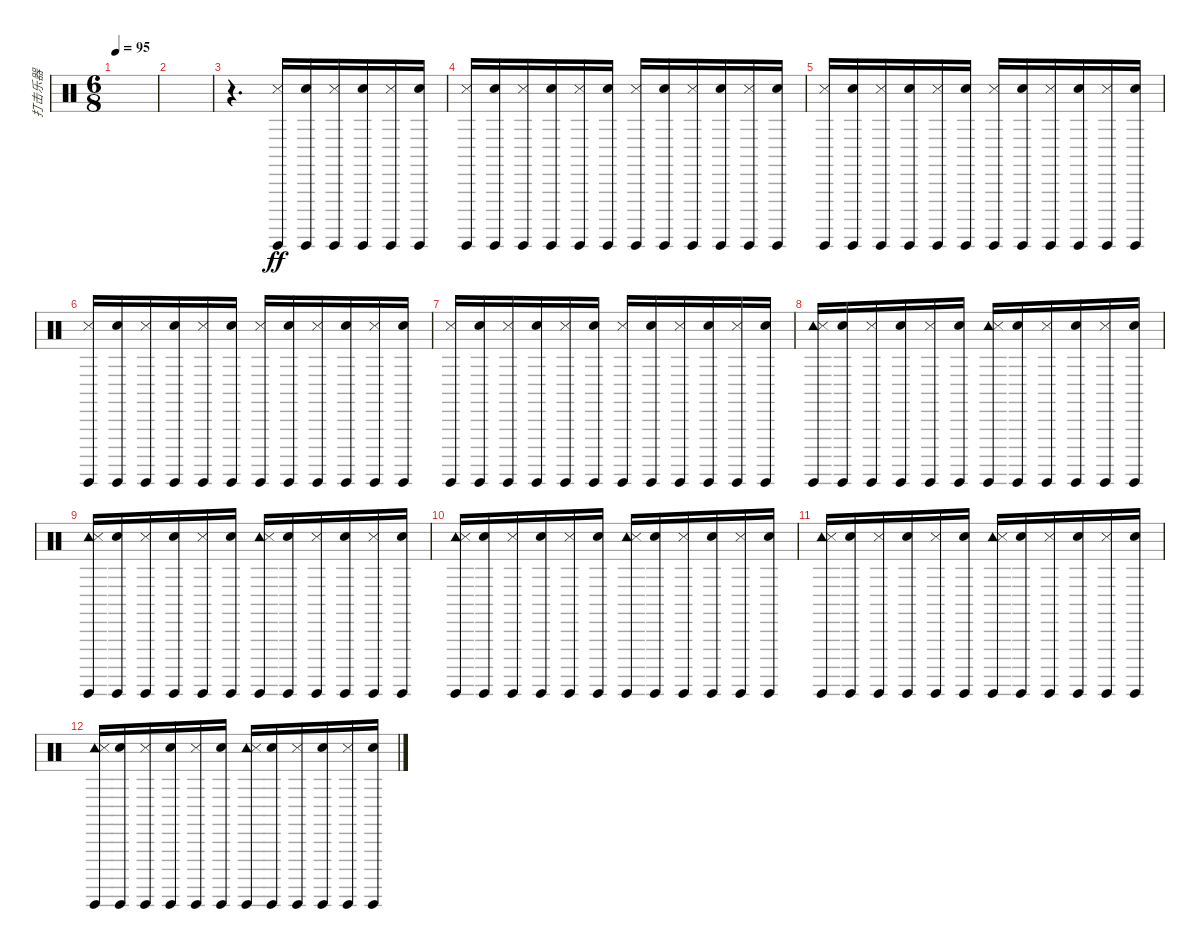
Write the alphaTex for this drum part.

\track ("打击乐器" "打击乐器") {instrument percussion}
\staff {score}
\articulation defaults
\ts (6 8)
\tempo 95
\clef neutral
\ks c
|
|
r.4{d} ("Snare (side stick) 3" "Guiro (hit)").16{dy ff} ("Hand Clap (hit)" "Guiro (hit)").16 ("Snare (side stick) 3" "Guiro (hit)").16 ("Hand Clap (hit)" "Guiro (hit)").16 ("Snare (side stick) 3" "Guiro (hit)").16 ("Hand Clap (hit)" "Guiro (hit)").16 |
("Snare (side stick) 3" "Guiro (hit)").16 ("Hand Clap (hit)" "Guiro (hit)").16 ("Snare (side stick) 3" "Guiro (hit)").16 ("Hand Clap (hit)" "Guiro (hit)").16 ("Snare (side stick) 3" "Guiro (hit)").16 ("Hand Clap (hit)" "Guiro (hit)").16 ("Snare (side stick) 3" "Guiro (hit)").16 ("Hand Clap (hit)" "Guiro (hit)").16 ("Snare (side stick) 3" "Guiro (hit)").16 ("Hand Clap (hit)" "Guiro (hit)").16 ("Snare (side stick) 3" "Guiro (hit)").16 ("Hand Clap (hit)" "Guiro (hit)").16 |
("Snare (side stick) 3" "Guiro (hit)").16 ("Hand Clap (hit)" "Guiro (hit)").16 ("Snare (side stick) 3" "Guiro (hit)").16 ("Hand Clap (hit)" "Guiro (hit)").16 ("Snare (side stick) 3" "Guiro (hit)").16 ("Hand Clap (hit)" "Guiro (hit)").16 ("Snare (side stick) 3" "Guiro (hit)").16 ("Hand Clap (hit)" "Guiro (hit)").16 ("Snare (side stick) 3" "Guiro (hit)").16 ("Hand Clap (hit)" "Guiro (hit)").16 ("Snare (side stick) 3" "Guiro (hit)").16 ("Hand Clap (hit)" "Guiro (hit)").16 |
("Snare (side stick) 3" "Guiro (hit)").16 ("Hand Clap (hit)" "Guiro (hit)").16 ("Snare (side stick) 3" "Guiro (hit)").16 ("Hand Clap (hit)" "Guiro (hit)").16 ("Snare (side stick) 3" "Guiro (hit)").16 ("Hand Clap (hit)" "Guiro (hit)").16 ("Snare (side stick) 3" "Guiro (hit)").16 ("Hand Clap (hit)" "Guiro (hit)").16 ("Snare (side stick) 3" "Guiro (hit)").16 ("Hand Clap (hit)" "Guiro (hit)").16 ("Snare (side stick) 3" "Guiro (hit)").16 ("Hand Clap (hit)" "Guiro (hit)").16 |
("Snare (side stick) 3" "Guiro (hit)").16 ("Hand Clap (hit)" "Guiro (hit)").16 ("Snare (side stick) 3" "Guiro (hit)").16 ("Hand Clap (hit)" "Guiro (hit)").16 ("Snare (side stick) 3" "Guiro (hit)").16 ("Hand Clap (hit)" "Guiro (hit)").16 ("Snare (side stick) 3" "Guiro (hit)").16 ("Hand Clap (hit)" "Guiro (hit)").16 ("Snare (side stick) 3" "Guiro (hit)").16 ("Hand Clap (hit)" "Guiro (hit)").16 ("Snare (side stick) 3" "Guiro (hit)").16 ("Hand Clap (hit)" "Guiro (hit)").16 |
("Tambourine (hit)" "Snare (side stick) 3" "Guiro (hit)").16 ("Hand Clap (hit)" "Guiro (hit)").16 ("Snare (side stick) 3" "Guiro (hit)").16 ("Hand Clap (hit)" "Guiro (hit)").16 ("Snare (side stick) 3" "Guiro (hit)").16 ("Hand Clap (hit)" "Guiro (hit)").16 ("Tambourine (hit)" "Snare (side stick) 3" "Guiro (hit)").16 ("Hand Clap (hit)" "Guiro (hit)").16 ("Snare (side stick) 3" "Guiro (hit)").16 ("Hand Clap (hit)" "Guiro (hit)").16 ("Snare (side stick) 3" "Guiro (hit)").16 ("Hand Clap (hit)" "Guiro (hit)").16 |
("Tambourine (hit)" "Snare (side stick) 3" "Guiro (hit)").16 ("Hand Clap (hit)" "Guiro (hit)").16 ("Snare (side stick) 3" "Guiro (hit)").16 ("Hand Clap (hit)" "Guiro (hit)").16 ("Snare (side stick) 3" "Guiro (hit)").16 ("Hand Clap (hit)" "Guiro (hit)").16 ("Tambourine (hit)" "Snare (side stick) 3" "Guiro (hit)").16 ("Hand Clap (hit)" "Guiro (hit)").16 ("Snare (side stick) 3" "Guiro (hit)").16 ("Hand Clap (hit)" "Guiro (hit)").16 ("Snare (side stick) 3" "Guiro (hit)").16 ("Hand Clap (hit)" "Guiro (hit)").16 |
("Tambourine (hit)" "Snare (side stick) 3" "Guiro (hit)").16 ("Hand Clap (hit)" "Guiro (hit)").16 ("Snare (side stick) 3" "Guiro (hit)").16 ("Hand Clap (hit)" "Guiro (hit)").16 ("Snare (side stick) 3" "Guiro (hit)").16 ("Hand Clap (hit)" "Guiro (hit)").16 ("Tambourine (hit)" "Snare (side stick) 3" "Guiro (hit)").16 ("Hand Clap (hit)" "Guiro (hit)").16 ("Snare (side stick) 3" "Guiro (hit)").16 ("Hand Clap (hit)" "Guiro (hit)").16 ("Snare (side stick) 3" "Guiro (hit)").16 ("Hand Clap (hit)" "Guiro (hit)").16 |
("Tambourine (hit)" "Snare (side stick) 3" "Guiro (hit)").16 ("Hand Clap (hit)" "Guiro (hit)").16 ("Snare (side stick) 3" "Guiro (hit)").16 ("Hand Clap (hit)" "Guiro (hit)").16 ("Snare (side stick) 3" "Guiro (hit)").16 ("Hand Clap (hit)" "Guiro (hit)").16 ("Tambourine (hit)" "Snare (side stick) 3" "Guiro (hit)").16 ("Hand Clap (hit)" "Guiro (hit)").16 ("Snare (side stick) 3" "Guiro (hit)").16 ("Hand Clap (hit)" "Guiro (hit)").16 ("Snare (side stick) 3" "Guiro (hit)").16 ("Hand Clap (hit)" "Guiro (hit)").16 |
("Tambourine (hit)" "Snare (side stick) 3" "Guiro (hit)").16 ("Hand Clap (hit)" "Guiro (hit)").16 ("Snare (side stick) 3" "Guiro (hit)").16 ("Hand Clap (hit)" "Guiro (hit)").16 ("Snare (side stick) 3" "Guiro (hit)").16 ("Hand Clap (hit)" "Guiro (hit)").16 ("Tambourine (hit)" "Snare (side stick) 3" "Guiro (hit)").16 ("Hand Clap (hit)" "Guiro (hit)").16 ("Snare (side stick) 3" "Guiro (hit)").16 ("Hand Clap (hit)" "Guiro (hit)").16 ("Snare (side stick) 3" "Guiro (hit)").16 ("Hand Clap (hit)" "Guiro (hit)").16
